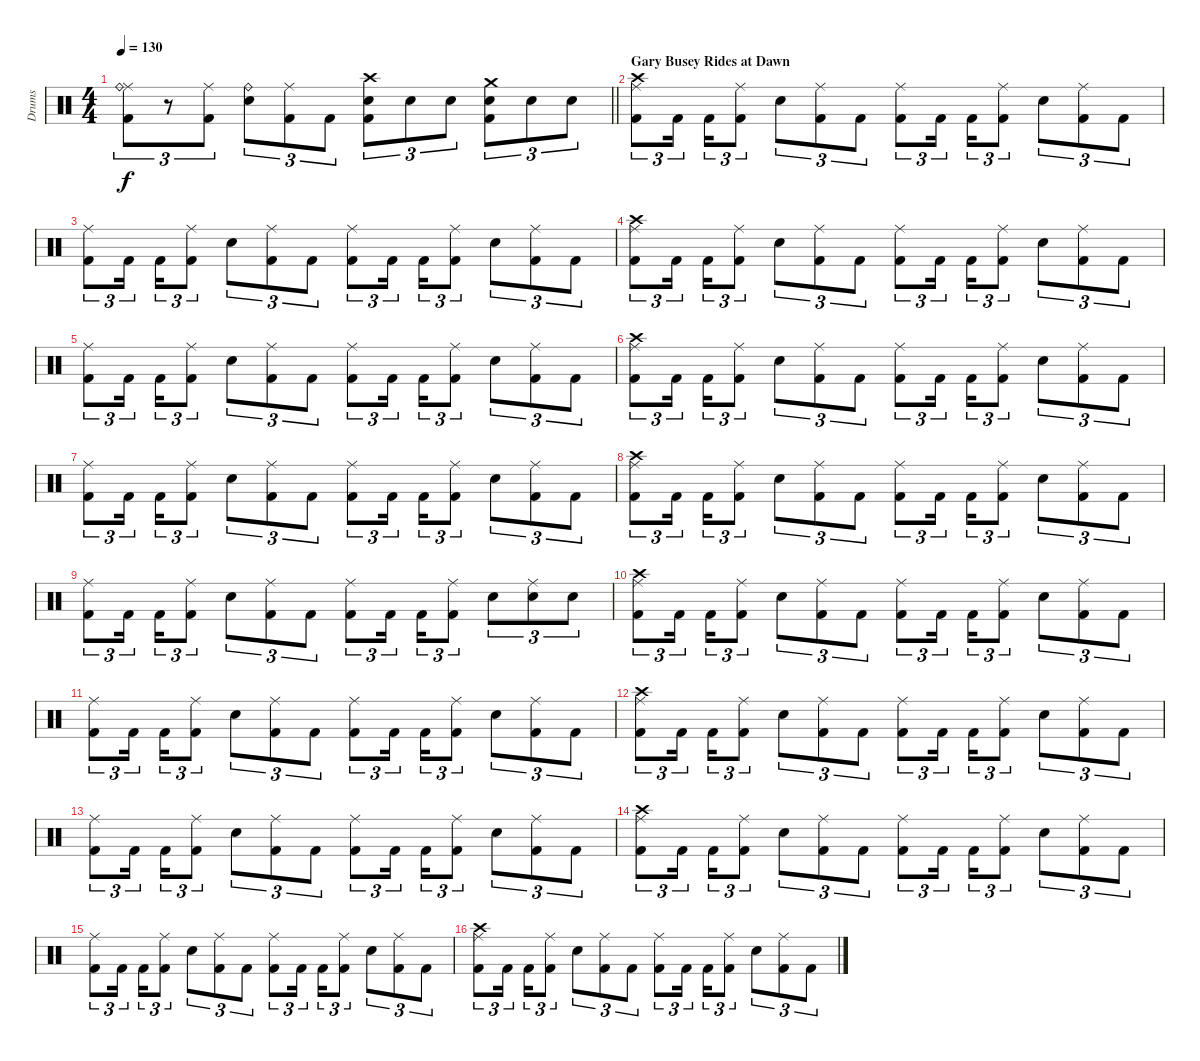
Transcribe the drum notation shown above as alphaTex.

\track ("Drums" "Drums") {instrument percussion}
\staff {score}
\articulation defaults
\ts (4 4)
\tempo 130
\clef neutral
\barLineRight lightlight
\ks c
("Ride (middle)" "Ride (bell)" "Kick (hit) 2").8{tu (3 2) dy f} r.8{tu (3 2)} ("Ride (middle)" "Kick (hit) 2").8{tu (3 2)} ("Ride (bell)" "Snare (hit) 2").8{tu (3 2)} ("Ride (middle)" "Kick (hit) 2").8{tu (3 2)} "Kick (hit) 2".8{tu (3 2)} ("Crash high (hit)" "Snare (hit) 2" "Kick (hit) 2").8{tu (3 2)} "Snare (hit) 2".8{tu (3 2)} "Snare (hit) 2".8{tu (3 2)} ("Crash medium (hit)" "Snare (hit) 2" "Kick (hit) 2").8{tu (3 2)} "Snare (hit) 2".8{tu (3 2)} "Snare (hit) 2".8{tu (3 2)} |
\section ("" "Gary Busey Rides at Dawn")
("Crash high (hit)" "Ride (middle)" "Kick (hit) 2").8{tu (3 2)} "Kick (hit) 2".16{tu (3 2) beam splitsecondary} "Kick (hit) 2".16{tu (3 2)} ("Ride (middle)" "Kick (hit) 2").8{tu (3 2)} "Snare (hit) 2".8{tu (3 2)} ("Ride (middle)" "Kick (hit) 2").8{tu (3 2)} "Kick (hit) 2".8{tu (3 2)} ("Ride (middle)" "Kick (hit) 2").8{tu (3 2)} "Kick (hit) 2".16{tu (3 2) beam splitsecondary} "Kick (hit) 2".16{tu (3 2)} ("Ride (middle)" "Kick (hit) 2").8{tu (3 2)} "Snare (hit) 2".8{tu (3 2)} ("Ride (middle)" "Kick (hit) 2").8{tu (3 2)} "Kick (hit) 2".8{tu (3 2)} |
("Ride (middle)" "Kick (hit) 2").8{tu (3 2)} "Kick (hit) 2".16{tu (3 2) beam splitsecondary} "Kick (hit) 2".16{tu (3 2)} ("Ride (middle)" "Kick (hit) 2").8{tu (3 2)} "Snare (hit) 2".8{tu (3 2)} ("Ride (middle)" "Kick (hit) 2").8{tu (3 2)} "Kick (hit) 2".8{tu (3 2)} ("Ride (middle)" "Kick (hit) 2").8{tu (3 2)} "Kick (hit) 2".16{tu (3 2) beam splitsecondary} "Kick (hit) 2".16{tu (3 2)} ("Ride (middle)" "Kick (hit) 2").8{tu (3 2)} "Snare (hit) 2".8{tu (3 2)} ("Ride (middle)" "Kick (hit) 2").8{tu (3 2)} "Kick (hit) 2".8{tu (3 2)} |
("Crash high (hit)" "Ride (middle)" "Kick (hit) 2").8{tu (3 2)} "Kick (hit) 2".16{tu (3 2) beam splitsecondary} "Kick (hit) 2".16{tu (3 2)} ("Ride (middle)" "Kick (hit) 2").8{tu (3 2)} "Snare (hit) 2".8{tu (3 2)} ("Ride (middle)" "Kick (hit) 2").8{tu (3 2)} "Kick (hit) 2".8{tu (3 2)} ("Ride (middle)" "Kick (hit) 2").8{tu (3 2)} "Kick (hit) 2".16{tu (3 2) beam splitsecondary} "Kick (hit) 2".16{tu (3 2)} ("Ride (middle)" "Kick (hit) 2").8{tu (3 2)} "Snare (hit) 2".8{tu (3 2)} ("Ride (middle)" "Kick (hit) 2").8{tu (3 2)} "Kick (hit) 2".8{tu (3 2)} |
("Ride (middle)" "Kick (hit) 2").8{tu (3 2)} "Kick (hit) 2".16{tu (3 2) beam splitsecondary} "Kick (hit) 2".16{tu (3 2)} ("Ride (middle)" "Kick (hit) 2").8{tu (3 2)} "Snare (hit) 2".8{tu (3 2)} ("Ride (middle)" "Kick (hit) 2").8{tu (3 2)} "Kick (hit) 2".8{tu (3 2)} ("Ride (middle)" "Kick (hit) 2").8{tu (3 2)} "Kick (hit) 2".16{tu (3 2) beam splitsecondary} "Kick (hit) 2".16{tu (3 2)} ("Ride (middle)" "Kick (hit) 2").8{tu (3 2)} "Snare (hit) 2".8{tu (3 2)} ("Ride (middle)" "Kick (hit) 2").8{tu (3 2)} "Kick (hit) 2".8{tu (3 2)} |
("Crash high (hit)" "Ride (middle)" "Kick (hit) 2").8{tu (3 2)} "Kick (hit) 2".16{tu (3 2) beam splitsecondary} "Kick (hit) 2".16{tu (3 2)} ("Ride (middle)" "Kick (hit) 2").8{tu (3 2)} "Snare (hit) 2".8{tu (3 2)} ("Ride (middle)" "Kick (hit) 2").8{tu (3 2)} "Kick (hit) 2".8{tu (3 2)} ("Ride (middle)" "Kick (hit) 2").8{tu (3 2)} "Kick (hit) 2".16{tu (3 2) beam splitsecondary} "Kick (hit) 2".16{tu (3 2)} ("Ride (middle)" "Kick (hit) 2").8{tu (3 2)} "Snare (hit) 2".8{tu (3 2)} ("Ride (middle)" "Kick (hit) 2").8{tu (3 2)} "Kick (hit) 2".8{tu (3 2)} |
("Ride (middle)" "Kick (hit) 2").8{tu (3 2)} "Kick (hit) 2".16{tu (3 2) beam splitsecondary} "Kick (hit) 2".16{tu (3 2)} ("Ride (middle)" "Kick (hit) 2").8{tu (3 2)} "Snare (hit) 2".8{tu (3 2)} ("Ride (middle)" "Kick (hit) 2").8{tu (3 2)} "Kick (hit) 2".8{tu (3 2)} ("Ride (middle)" "Kick (hit) 2").8{tu (3 2)} "Kick (hit) 2".16{tu (3 2) beam splitsecondary} "Kick (hit) 2".16{tu (3 2)} ("Ride (middle)" "Kick (hit) 2").8{tu (3 2)} "Snare (hit) 2".8{tu (3 2)} ("Ride (middle)" "Kick (hit) 2").8{tu (3 2)} "Kick (hit) 2".8{tu (3 2)} |
("Crash high (hit)" "Ride (middle)" "Kick (hit) 2").8{tu (3 2)} "Kick (hit) 2".16{tu (3 2) beam splitsecondary} "Kick (hit) 2".16{tu (3 2)} ("Ride (middle)" "Kick (hit) 2").8{tu (3 2)} "Snare (hit) 2".8{tu (3 2)} ("Ride (middle)" "Kick (hit) 2").8{tu (3 2)} "Kick (hit) 2".8{tu (3 2)} ("Ride (middle)" "Kick (hit) 2").8{tu (3 2)} "Kick (hit) 2".16{tu (3 2) beam splitsecondary} "Kick (hit) 2".16{tu (3 2)} ("Ride (middle)" "Kick (hit) 2").8{tu (3 2)} "Snare (hit) 2".8{tu (3 2)} ("Ride (middle)" "Kick (hit) 2").8{tu (3 2)} "Kick (hit) 2".8{tu (3 2)} |
("Ride (middle)" "Kick (hit) 2").8{tu (3 2)} "Kick (hit) 2".16{tu (3 2) beam splitsecondary} "Kick (hit) 2".16{tu (3 2)} ("Ride (middle)" "Kick (hit) 2").8{tu (3 2)} "Snare (hit) 2".8{tu (3 2)} ("Ride (middle)" "Kick (hit) 2").8{tu (3 2)} "Kick (hit) 2".8{tu (3 2)} ("Ride (middle)" "Kick (hit) 2").8{tu (3 2)} "Kick (hit) 2".16{tu (3 2) beam splitsecondary} "Kick (hit) 2".16{tu (3 2)} ("Ride (middle)" "Kick (hit) 2").8{tu (3 2)} "Snare (hit) 2".8{tu (3 2)} ("Ride (middle)" "Snare (hit) 2").8{tu (3 2)} "Snare (hit) 2".8{tu (3 2)} |
("Crash high (hit)" "Ride (middle)" "Kick (hit) 2").8{tu (3 2)} "Kick (hit) 2".16{tu (3 2) beam splitsecondary} "Kick (hit) 2".16{tu (3 2)} ("Ride (middle)" "Kick (hit) 2").8{tu (3 2)} "Snare (hit) 2".8{tu (3 2)} ("Ride (middle)" "Kick (hit) 2").8{tu (3 2)} "Kick (hit) 2".8{tu (3 2)} ("Ride (middle)" "Kick (hit) 2").8{tu (3 2)} "Kick (hit) 2".16{tu (3 2) beam splitsecondary} "Kick (hit) 2".16{tu (3 2)} ("Ride (middle)" "Kick (hit) 2").8{tu (3 2)} "Snare (hit) 2".8{tu (3 2)} ("Ride (middle)" "Kick (hit) 2").8{tu (3 2)} "Kick (hit) 2".8{tu (3 2)} |
("Ride (middle)" "Kick (hit) 2").8{tu (3 2)} "Kick (hit) 2".16{tu (3 2) beam splitsecondary} "Kick (hit) 2".16{tu (3 2)} ("Ride (middle)" "Kick (hit) 2").8{tu (3 2)} "Snare (hit) 2".8{tu (3 2)} ("Ride (middle)" "Kick (hit) 2").8{tu (3 2)} "Kick (hit) 2".8{tu (3 2)} ("Ride (middle)" "Kick (hit) 2").8{tu (3 2)} "Kick (hit) 2".16{tu (3 2) beam splitsecondary} "Kick (hit) 2".16{tu (3 2)} ("Ride (middle)" "Kick (hit) 2").8{tu (3 2)} "Snare (hit) 2".8{tu (3 2)} ("Ride (middle)" "Kick (hit) 2").8{tu (3 2)} "Kick (hit) 2".8{tu (3 2)} |
("Crash high (hit)" "Ride (middle)" "Kick (hit) 2").8{tu (3 2)} "Kick (hit) 2".16{tu (3 2) beam splitsecondary} "Kick (hit) 2".16{tu (3 2)} ("Ride (middle)" "Kick (hit) 2").8{tu (3 2)} "Snare (hit) 2".8{tu (3 2)} ("Ride (middle)" "Kick (hit) 2").8{tu (3 2)} "Kick (hit) 2".8{tu (3 2)} ("Ride (middle)" "Kick (hit) 2").8{tu (3 2)} "Kick (hit) 2".16{tu (3 2) beam splitsecondary} "Kick (hit) 2".16{tu (3 2)} ("Ride (middle)" "Kick (hit) 2").8{tu (3 2)} "Snare (hit) 2".8{tu (3 2)} ("Ride (middle)" "Kick (hit) 2").8{tu (3 2)} "Kick (hit) 2".8{tu (3 2)} |
("Ride (middle)" "Kick (hit) 2").8{tu (3 2)} "Kick (hit) 2".16{tu (3 2) beam splitsecondary} "Kick (hit) 2".16{tu (3 2)} ("Ride (middle)" "Kick (hit) 2").8{tu (3 2)} "Snare (hit) 2".8{tu (3 2)} ("Ride (middle)" "Kick (hit) 2").8{tu (3 2)} "Kick (hit) 2".8{tu (3 2)} ("Ride (middle)" "Kick (hit) 2").8{tu (3 2)} "Kick (hit) 2".16{tu (3 2) beam splitsecondary} "Kick (hit) 2".16{tu (3 2)} ("Ride (middle)" "Kick (hit) 2").8{tu (3 2)} "Snare (hit) 2".8{tu (3 2)} ("Ride (middle)" "Kick (hit) 2").8{tu (3 2)} "Kick (hit) 2".8{tu (3 2)} |
("Crash high (hit)" "Ride (middle)" "Kick (hit) 2").8{tu (3 2)} "Kick (hit) 2".16{tu (3 2) beam splitsecondary} "Kick (hit) 2".16{tu (3 2)} ("Ride (middle)" "Kick (hit) 2").8{tu (3 2)} "Snare (hit) 2".8{tu (3 2)} ("Ride (middle)" "Kick (hit) 2").8{tu (3 2)} "Kick (hit) 2".8{tu (3 2)} ("Ride (middle)" "Kick (hit) 2").8{tu (3 2)} "Kick (hit) 2".16{tu (3 2) beam splitsecondary} "Kick (hit) 2".16{tu (3 2)} ("Ride (middle)" "Kick (hit) 2").8{tu (3 2)} "Snare (hit) 2".8{tu (3 2)} ("Ride (middle)" "Kick (hit) 2").8{tu (3 2)} "Kick (hit) 2".8{tu (3 2)} |
("Ride (middle)" "Kick (hit) 2").8{tu (3 2)} "Kick (hit) 2".16{tu (3 2) beam splitsecondary} "Kick (hit) 2".16{tu (3 2)} ("Ride (middle)" "Kick (hit) 2").8{tu (3 2)} "Snare (hit) 2".8{tu (3 2)} ("Ride (middle)" "Kick (hit) 2").8{tu (3 2)} "Kick (hit) 2".8{tu (3 2)} ("Ride (middle)" "Kick (hit) 2").8{tu (3 2)} "Kick (hit) 2".16{tu (3 2) beam splitsecondary} "Kick (hit) 2".16{tu (3 2)} ("Ride (middle)" "Kick (hit) 2").8{tu (3 2)} "Snare (hit) 2".8{tu (3 2)} ("Ride (middle)" "Kick (hit) 2").8{tu (3 2)} "Kick (hit) 2".8{tu (3 2)} |
("Crash high (hit)" "Ride (middle)" "Kick (hit) 2").8{tu (3 2)} "Kick (hit) 2".16{tu (3 2) beam splitsecondary} "Kick (hit) 2".16{tu (3 2)} ("Ride (middle)" "Kick (hit) 2").8{tu (3 2)} "Snare (hit) 2".8{tu (3 2)} ("Ride (middle)" "Kick (hit) 2").8{tu (3 2)} "Kick (hit) 2".8{tu (3 2)} ("Ride (middle)" "Kick (hit) 2").8{tu (3 2)} "Kick (hit) 2".16{tu (3 2) beam splitsecondary} "Kick (hit) 2".16{tu (3 2)} ("Ride (middle)" "Kick (hit) 2").8{tu (3 2)} "Snare (hit) 2".8{tu (3 2)} ("Ride (middle)" "Kick (hit) 2").8{tu (3 2)} "Kick (hit) 2".8{tu (3 2)}
